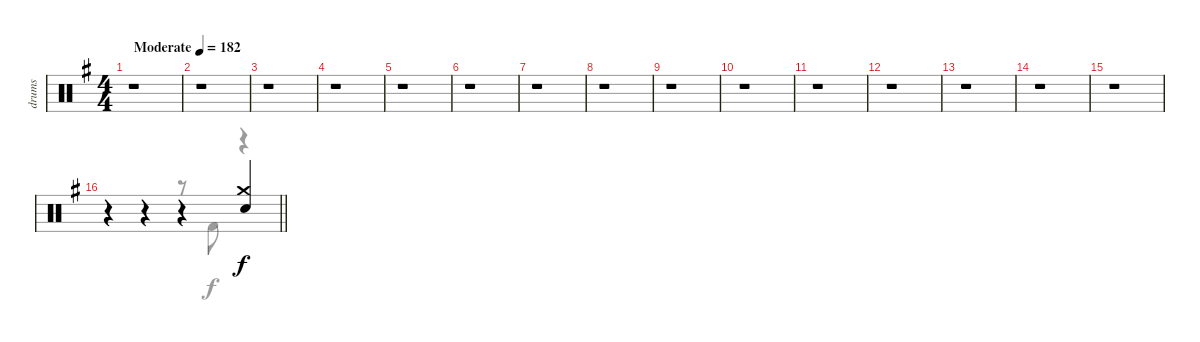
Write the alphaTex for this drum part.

\track ("drums" "drums") {instrument percussion}
\staff {score}
\articulation defaults
\voice
\ts (4 4)
\tempo (182 "Moderate")
\clef neutral
\ks g
r.1{dy f} |
r.1 |
r.1 |
r.1 |
r.1 |
r.1 |
r.1 |
r.1 |
r.1 |
r.1 |
r.1 |
r.1 |
r.1 |
r.1 |
r.1 |
\barLineRight lightlight
r.4 r.4 r.4 ("Crash medium (hit)" "Snare (hit) 2").4
\voice
\clef neutral
\ottava regular
\simile none
\ks g
|
|
|
|
|
|
|
|
|
|
|
|
|
|
|
\barLineRight lightlight
r.4 r.4 r.8 "Kick (hit) 2".8 r.4
